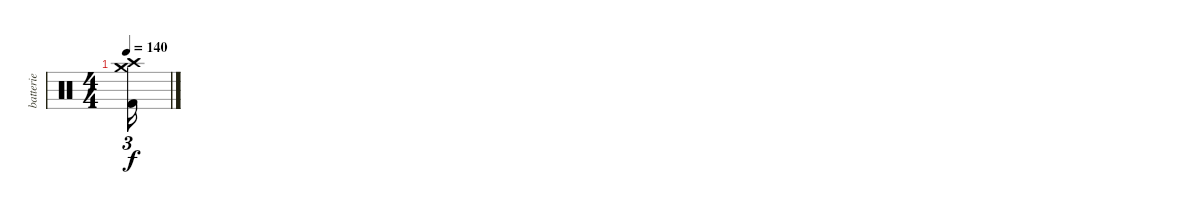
\track ("batterie" "batterie") {instrument percussion}
\staff {score}
\articulation defaults
\ts (4 4)
\tempo 140
\clef neutral
\ks c
("Crash medium (hit)" "Crash high (hit)" "Kick (hit) 2").16{tu (3 2) dy f}
